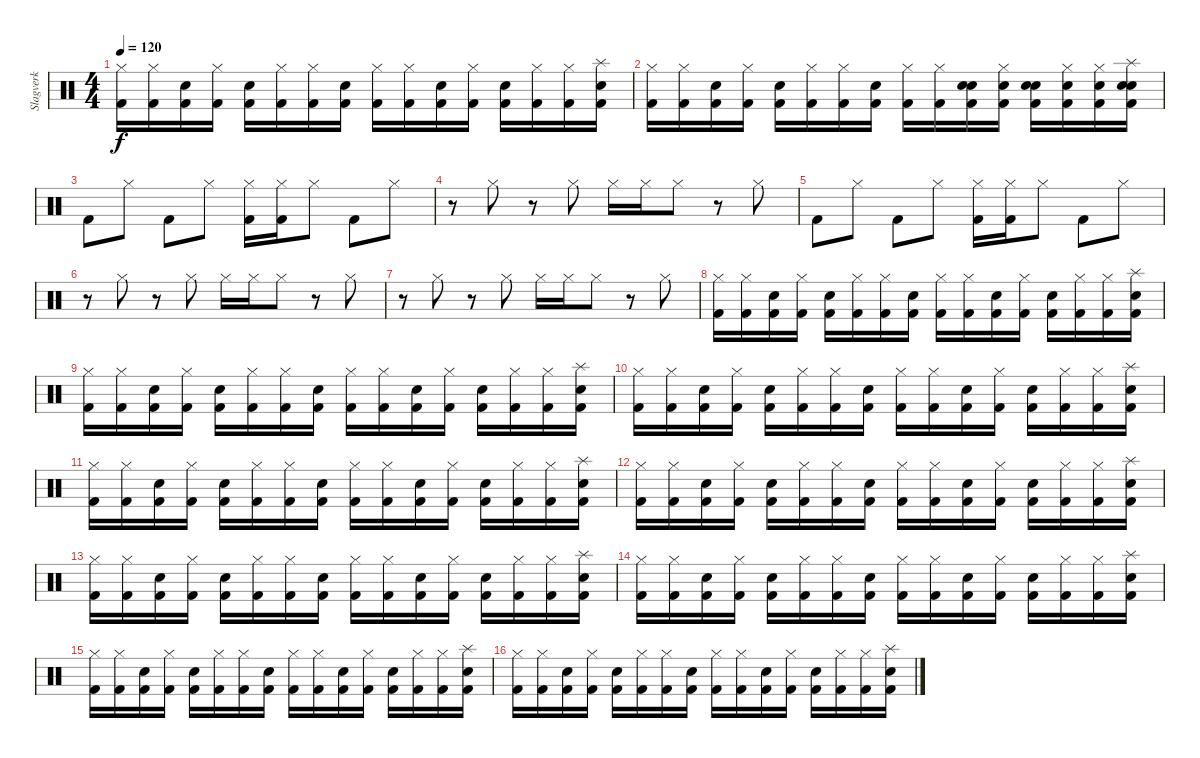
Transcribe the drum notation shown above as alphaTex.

\track ("Slagverk" "Slagverk") {instrument percussion}
\staff {score}
\articulation defaults
\ts (4 4)
\tempo 120
\clef neutral
\ks c
("Kick (hit) 2" "Hi-Hat (closed)").16{dy f} ("Kick (hit) 2" "Hi-Hat (closed)").16 ("Kick (hit) 2" "Snare (hit) 2").16 ("Kick (hit) 2" "Hi-Hat (closed)").16 ("Kick (hit) 2" "Snare (hit) 2").16 ("Kick (hit) 2" "Hi-Hat (closed)").16 ("Kick (hit) 2" "Hi-Hat (closed)").16 ("Kick (hit) 2" "Snare (hit) 2").16 ("Kick (hit) 2" "Hi-Hat (closed)").16 ("Kick (hit) 2" "Hi-Hat (closed)").16 ("Kick (hit) 2" "Snare (hit) 2").16 ("Kick (hit) 2" "Hi-Hat (closed)").16 ("Kick (hit) 2" "Snare (hit) 2").16 ("Kick (hit) 2" "Hi-Hat (closed)").16 ("Kick (hit) 2" "Hi-Hat (closed)").16 ("Kick (hit) 2" "Splash (hit)" "Snare (hit) 2").16 |
("Kick (hit) 2" "Hi-Hat (closed)").16 ("Kick (hit) 2" "Hi-Hat (closed)").16 ("Kick (hit) 2" "Snare (hit) 2").16 ("Kick (hit) 2" "Hi-Hat (closed)").16 ("Kick (hit) 2" "Snare (hit) 2").16 ("Kick (hit) 2" "Hi-Hat (closed)").16 ("Kick (hit) 2" "Hi-Hat (closed)").16 ("Kick (hit) 2" "Snare (hit) 2").16 ("Kick (hit) 2" "Hi-Hat (closed)").16 ("Kick (hit) 2" "Hi-Hat (closed)").16 ("Kick (hit) 2" "Snare (hit) 2" "Snare (hit) 2").16 ("Kick (hit) 2" "Snare (hit) 2" "Hi-Hat (closed)").16 ("Kick (hit) 2" "Snare (hit) 2" "Snare (hit) 2").16 ("Kick (hit) 2" "Snare (hit) 2" "Hi-Hat (closed)").16 ("Kick (hit) 2" "Snare (hit) 2" "Hi-Hat (closed)").16 ("Kick (hit) 2" "Splash (hit)" "Snare (hit) 2" "Snare (hit) 2").16 |
"Kick (hit) 2".8 "Hi-Hat (closed)".8 "Kick (hit) 2".8 "Hi-Hat (closed)".8 ("Kick (hit) 2" "Hi-Hat (closed)").16 ("Kick (hit) 2" "Hi-Hat (closed)").16 "Hi-Hat (closed)".8 "Kick (hit) 2".8 "Hi-Hat (closed)".8 |
r.8 "Hi-Hat (closed)".8 r.8 "Hi-Hat (closed)".8 "Hi-Hat (closed)".16 "Hi-Hat (closed)".16 "Hi-Hat (closed)".8 r.8 "Hi-Hat (closed)".8 |
"Kick (hit) 2".8 "Hi-Hat (closed)".8 "Kick (hit) 2".8 "Hi-Hat (closed)".8 ("Kick (hit) 2" "Hi-Hat (closed)").16 ("Kick (hit) 2" "Hi-Hat (closed)").16 "Hi-Hat (closed)".8 "Kick (hit) 2".8 "Hi-Hat (closed)".8 |
r.8 "Hi-Hat (closed)".8 r.8 "Hi-Hat (closed)".8 "Hi-Hat (closed)".16 "Hi-Hat (closed)".16 "Hi-Hat (closed)".8 r.8 "Hi-Hat (closed)".8 |
r.8 "Hi-Hat (closed)".8 r.8 "Hi-Hat (closed)".8 "Hi-Hat (closed)".16 "Hi-Hat (closed)".16 "Hi-Hat (closed)".8 r.8 "Hi-Hat (closed)".8 |
("Kick (hit) 2" "Hi-Hat (closed)").16 ("Kick (hit) 2" "Hi-Hat (closed)").16 ("Kick (hit) 2" "Snare (hit) 2").16 ("Kick (hit) 2" "Hi-Hat (closed)").16 ("Kick (hit) 2" "Snare (hit) 2").16 ("Kick (hit) 2" "Hi-Hat (closed)").16 ("Kick (hit) 2" "Hi-Hat (closed)").16 ("Kick (hit) 2" "Snare (hit) 2").16 ("Kick (hit) 2" "Hi-Hat (closed)").16 ("Kick (hit) 2" "Hi-Hat (closed)").16 ("Kick (hit) 2" "Snare (hit) 2").16 ("Kick (hit) 2" "Hi-Hat (closed)").16 ("Kick (hit) 2" "Snare (hit) 2").16 ("Kick (hit) 2" "Hi-Hat (closed)").16 ("Kick (hit) 2" "Hi-Hat (closed)").16 ("Kick (hit) 2" "Splash (hit)" "Snare (hit) 2").16 |
("Kick (hit) 2" "Hi-Hat (closed)").16 ("Kick (hit) 2" "Hi-Hat (closed)").16 ("Kick (hit) 2" "Snare (hit) 2").16 ("Kick (hit) 2" "Hi-Hat (closed)").16 ("Kick (hit) 2" "Snare (hit) 2").16 ("Kick (hit) 2" "Hi-Hat (closed)").16 ("Kick (hit) 2" "Hi-Hat (closed)").16 ("Kick (hit) 2" "Snare (hit) 2").16 ("Kick (hit) 2" "Hi-Hat (closed)").16 ("Kick (hit) 2" "Hi-Hat (closed)").16 ("Kick (hit) 2" "Snare (hit) 2").16 ("Kick (hit) 2" "Hi-Hat (closed)").16 ("Kick (hit) 2" "Snare (hit) 2").16 ("Kick (hit) 2" "Hi-Hat (closed)").16 ("Kick (hit) 2" "Hi-Hat (closed)").16 ("Kick (hit) 2" "Splash (hit)" "Snare (hit) 2").16 |
("Kick (hit) 2" "Hi-Hat (closed)").16 ("Kick (hit) 2" "Hi-Hat (closed)").16 ("Kick (hit) 2" "Snare (hit) 2").16 ("Kick (hit) 2" "Hi-Hat (closed)").16 ("Kick (hit) 2" "Snare (hit) 2").16 ("Kick (hit) 2" "Hi-Hat (closed)").16 ("Kick (hit) 2" "Hi-Hat (closed)").16 ("Kick (hit) 2" "Snare (hit) 2").16 ("Kick (hit) 2" "Hi-Hat (closed)").16 ("Kick (hit) 2" "Hi-Hat (closed)").16 ("Kick (hit) 2" "Snare (hit) 2").16 ("Kick (hit) 2" "Hi-Hat (closed)").16 ("Kick (hit) 2" "Snare (hit) 2").16 ("Kick (hit) 2" "Hi-Hat (closed)").16 ("Kick (hit) 2" "Hi-Hat (closed)").16 ("Kick (hit) 2" "Splash (hit)" "Snare (hit) 2").16 |
("Kick (hit) 2" "Hi-Hat (closed)").16 ("Kick (hit) 2" "Hi-Hat (closed)").16 ("Kick (hit) 2" "Snare (hit) 2").16 ("Kick (hit) 2" "Hi-Hat (closed)").16 ("Kick (hit) 2" "Snare (hit) 2").16 ("Kick (hit) 2" "Hi-Hat (closed)").16 ("Kick (hit) 2" "Hi-Hat (closed)").16 ("Kick (hit) 2" "Snare (hit) 2").16 ("Kick (hit) 2" "Hi-Hat (closed)").16 ("Kick (hit) 2" "Hi-Hat (closed)").16 ("Kick (hit) 2" "Snare (hit) 2").16 ("Kick (hit) 2" "Hi-Hat (closed)").16 ("Kick (hit) 2" "Snare (hit) 2").16 ("Kick (hit) 2" "Hi-Hat (closed)").16 ("Kick (hit) 2" "Hi-Hat (closed)").16 ("Kick (hit) 2" "Splash (hit)" "Snare (hit) 2").16 |
("Kick (hit) 2" "Hi-Hat (closed)").16 ("Kick (hit) 2" "Hi-Hat (closed)").16 ("Kick (hit) 2" "Snare (hit) 2").16 ("Kick (hit) 2" "Hi-Hat (closed)").16 ("Kick (hit) 2" "Snare (hit) 2").16 ("Kick (hit) 2" "Hi-Hat (closed)").16 ("Kick (hit) 2" "Hi-Hat (closed)").16 ("Kick (hit) 2" "Snare (hit) 2").16 ("Kick (hit) 2" "Hi-Hat (closed)").16 ("Kick (hit) 2" "Hi-Hat (closed)").16 ("Kick (hit) 2" "Snare (hit) 2").16 ("Kick (hit) 2" "Hi-Hat (closed)").16 ("Kick (hit) 2" "Snare (hit) 2").16 ("Kick (hit) 2" "Hi-Hat (closed)").16 ("Kick (hit) 2" "Hi-Hat (closed)").16 ("Kick (hit) 2" "Splash (hit)" "Snare (hit) 2").16 |
("Kick (hit) 2" "Hi-Hat (closed)").16 ("Kick (hit) 2" "Hi-Hat (closed)").16 ("Kick (hit) 2" "Snare (hit) 2").16 ("Kick (hit) 2" "Hi-Hat (closed)").16 ("Kick (hit) 2" "Snare (hit) 2").16 ("Kick (hit) 2" "Hi-Hat (closed)").16 ("Kick (hit) 2" "Hi-Hat (closed)").16 ("Kick (hit) 2" "Snare (hit) 2").16 ("Kick (hit) 2" "Hi-Hat (closed)").16 ("Kick (hit) 2" "Hi-Hat (closed)").16 ("Kick (hit) 2" "Snare (hit) 2").16 ("Kick (hit) 2" "Hi-Hat (closed)").16 ("Kick (hit) 2" "Snare (hit) 2").16 ("Kick (hit) 2" "Hi-Hat (closed)").16 ("Kick (hit) 2" "Hi-Hat (closed)").16 ("Kick (hit) 2" "Splash (hit)" "Snare (hit) 2").16 |
("Kick (hit) 2" "Hi-Hat (closed)").16 ("Kick (hit) 2" "Hi-Hat (closed)").16 ("Kick (hit) 2" "Snare (hit) 2").16 ("Kick (hit) 2" "Hi-Hat (closed)").16 ("Kick (hit) 2" "Snare (hit) 2").16 ("Kick (hit) 2" "Hi-Hat (closed)").16 ("Kick (hit) 2" "Hi-Hat (closed)").16 ("Kick (hit) 2" "Snare (hit) 2").16 ("Kick (hit) 2" "Hi-Hat (closed)").16 ("Kick (hit) 2" "Hi-Hat (closed)").16 ("Kick (hit) 2" "Snare (hit) 2").16 ("Kick (hit) 2" "Hi-Hat (closed)").16 ("Kick (hit) 2" "Snare (hit) 2").16 ("Kick (hit) 2" "Hi-Hat (closed)").16 ("Kick (hit) 2" "Hi-Hat (closed)").16 ("Kick (hit) 2" "Splash (hit)" "Snare (hit) 2").16 |
("Kick (hit) 2" "Hi-Hat (closed)").16 ("Kick (hit) 2" "Hi-Hat (closed)").16 ("Kick (hit) 2" "Snare (hit) 2").16 ("Kick (hit) 2" "Hi-Hat (closed)").16 ("Kick (hit) 2" "Snare (hit) 2").16 ("Kick (hit) 2" "Hi-Hat (closed)").16 ("Kick (hit) 2" "Hi-Hat (closed)").16 ("Kick (hit) 2" "Snare (hit) 2").16 ("Kick (hit) 2" "Hi-Hat (closed)").16 ("Kick (hit) 2" "Hi-Hat (closed)").16 ("Kick (hit) 2" "Snare (hit) 2").16 ("Kick (hit) 2" "Hi-Hat (closed)").16 ("Kick (hit) 2" "Snare (hit) 2").16 ("Kick (hit) 2" "Hi-Hat (closed)").16 ("Kick (hit) 2" "Hi-Hat (closed)").16 ("Kick (hit) 2" "Splash (hit)" "Snare (hit) 2").16 |
("Kick (hit) 2" "Hi-Hat (closed)").16 ("Kick (hit) 2" "Hi-Hat (closed)").16 ("Kick (hit) 2" "Snare (hit) 2").16 ("Kick (hit) 2" "Hi-Hat (closed)").16 ("Kick (hit) 2" "Snare (hit) 2").16 ("Kick (hit) 2" "Hi-Hat (closed)").16 ("Kick (hit) 2" "Hi-Hat (closed)").16 ("Kick (hit) 2" "Snare (hit) 2").16 ("Kick (hit) 2" "Hi-Hat (closed)").16 ("Kick (hit) 2" "Hi-Hat (closed)").16 ("Kick (hit) 2" "Snare (hit) 2").16 ("Kick (hit) 2" "Hi-Hat (closed)").16 ("Kick (hit) 2" "Snare (hit) 2").16 ("Kick (hit) 2" "Hi-Hat (closed)").16 ("Kick (hit) 2" "Hi-Hat (closed)").16 ("Kick (hit) 2" "Splash (hit)" "Snare (hit) 2").16
